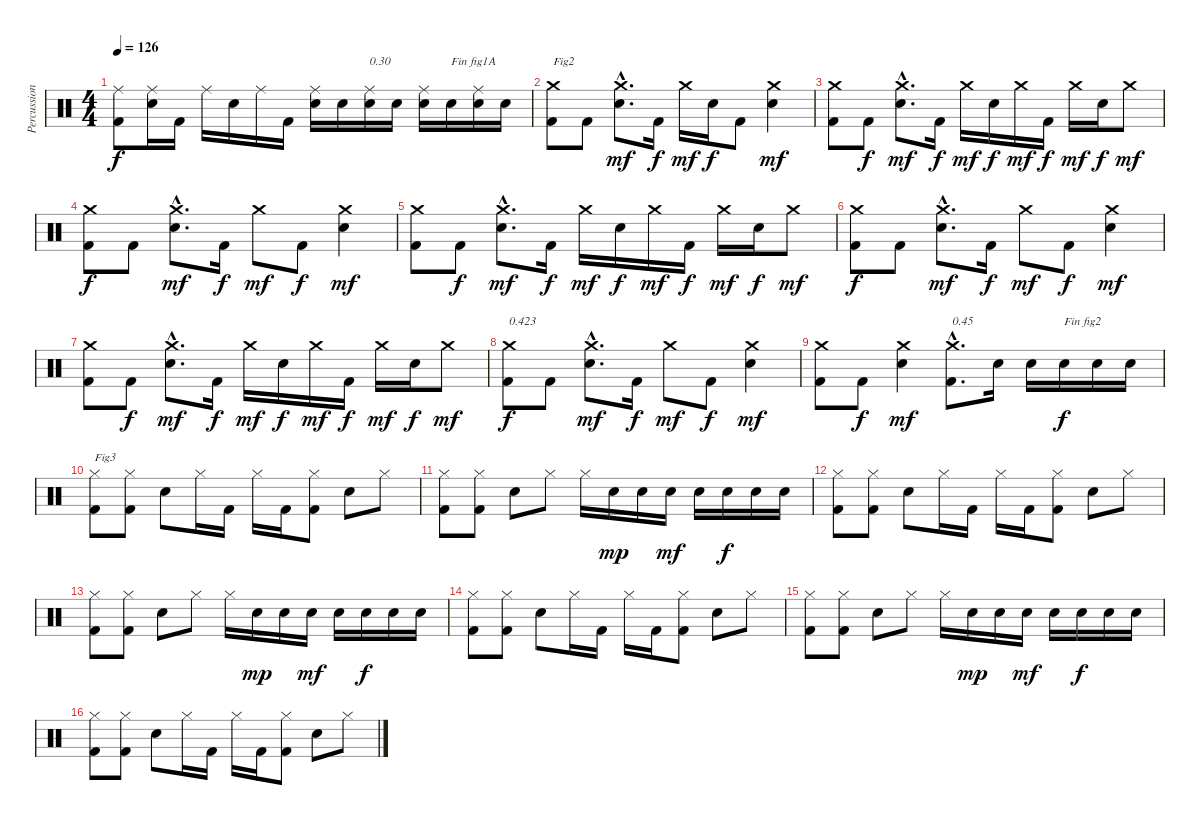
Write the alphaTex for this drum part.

\track ("Percussions" "Percussion") {instrument percussion}
\staff {score}
\articulation defaults
\ts (4 4)
\tempo 126
\clef neutral
\ks c
("Kick (hit) 2" "Ride (middle)").8{dy f} ("Electric Snare (hit)" "Ride (middle)").16 "Kick (hit) 2".16 "Ride (middle)".16 "Electric Snare (hit)".16 "Ride (middle)".16 "Kick (hit) 2".16 ("Electric Snare (hit)" "Ride (middle)").16 "Electric Snare (hit)".16 ("Electric Snare (hit)" "Ride (middle)").16{txt "0.30"} "Electric Snare (hit)".16 ("Electric Snare (hit)" "Ride (middle)").16 "Electric Snare (hit)".16{txt "Fin fig1A"} ("Electric Snare (hit)" "Ride (middle)").16 "Electric Snare (hit)".16 |
("Kick (hit) 2" "Crash medium (hit)").8{txt "Fig2"} "Kick (hit) 2".8 ("Electric Snare (hit)"{hac} "Crash medium (hit)"{hac}).8{d dy mf} "Kick (hit) 2".16{dy f} "Crash medium (hit)".16{dy mf} "Electric Snare (hit)".16{dy f} "Kick (hit) 2".8 ("Electric Snare (hit)" "Crash medium (hit)").4{dy mf} |
("Kick (hit) 2" "Crash medium (hit)").8 "Kick (hit) 2".8{dy f} ("Electric Snare (hit)"{hac} "Crash medium (hit)"{hac}).8{d dy mf} "Kick (hit) 2".16{dy f} "Crash medium (hit)".16{dy mf} "Electric Snare (hit)".16{dy f} "Crash medium (hit)".16{dy mf} "Kick (hit) 2".16{dy f} "Crash medium (hit)".16{dy mf} "Electric Snare (hit)".16{dy f} "Crash medium (hit)".8{dy mf} |
("Kick (hit) 2" "Crash medium (hit)").8{dy f} "Kick (hit) 2".8 ("Electric Snare (hit)"{hac} "Crash medium (hit)"{hac}).8{d dy mf} "Kick (hit) 2".16{dy f} "Crash medium (hit)".8{dy mf} "Kick (hit) 2".8{dy f} ("Electric Snare (hit)" "Crash medium (hit)").4{dy mf} |
("Kick (hit) 2" "Crash medium (hit)").8 "Kick (hit) 2".8{dy f} ("Electric Snare (hit)"{hac} "Crash medium (hit)"{hac}).8{d dy mf} "Kick (hit) 2".16{dy f} "Crash medium (hit)".16{dy mf} "Electric Snare (hit)".16{dy f} "Crash medium (hit)".16{dy mf} "Kick (hit) 2".16{dy f} "Crash medium (hit)".16{dy mf} "Electric Snare (hit)".16{dy f} "Crash medium (hit)".8{dy mf} |
("Kick (hit) 2" "Crash medium (hit)").8{dy f} "Kick (hit) 2".8 ("Electric Snare (hit)"{hac} "Crash medium (hit)"{hac}).8{d dy mf} "Kick (hit) 2".16{dy f} "Crash medium (hit)".8{dy mf} "Kick (hit) 2".8{dy f} ("Electric Snare (hit)" "Crash medium (hit)").4{dy mf} |
("Kick (hit) 2" "Crash medium (hit)").8 "Kick (hit) 2".8{dy f} ("Electric Snare (hit)"{hac} "Crash medium (hit)"{hac}).8{d dy mf} "Kick (hit) 2".16{dy f} "Crash medium (hit)".16{dy mf} "Electric Snare (hit)".16{dy f} "Crash medium (hit)".16{dy mf} "Kick (hit) 2".16{dy f} "Crash medium (hit)".16{dy mf} "Electric Snare (hit)".16{dy f} "Crash medium (hit)".8{dy mf} |
("Kick (hit) 2" "Crash medium (hit)").8{txt "0.423" dy f} "Kick (hit) 2".8 ("Electric Snare (hit)"{hac} "Crash medium (hit)"{hac}).8{d dy mf} "Kick (hit) 2".16{dy f} "Crash medium (hit)".8{dy mf} "Kick (hit) 2".8{dy f} ("Electric Snare (hit)" "Crash medium (hit)").4{dy mf} |
("Kick (hit) 2" "Crash medium (hit)").8 "Kick (hit) 2".8{dy f} ("Electric Snare (hit)" "Crash medium (hit)").4{dy mf} ("Kick (hit) 2"{hac} "Crash medium (hit)"{hac}).8{d txt "0.45"} "Electric Snare (hit)".16 "Electric Snare (hit)".16 "Electric Snare (hit)".16{txt "Fin fig2" dy f} "Electric Snare (hit)".16 "Electric Snare (hit)".16 |
("Kick (hit) 2" "Hi-Hat (closed)").8{txt "Fig3"} ("Kick (hit) 2" "Hi-Hat (closed)").8 "Electric Snare (hit)".8 "Hi-Hat (closed)".16 "Kick (hit) 2".16 "Hi-Hat (closed)".16 "Kick (hit) 2".16 ("Kick (hit) 2" "Hi-Hat (closed)").8 "Electric Snare (hit)".8 "Hi-Hat (closed)".8 |
("Kick (hit) 2" "Hi-Hat (closed)").8 ("Kick (hit) 2" "Hi-Hat (closed)").8 "Electric Snare (hit)".8 "Hi-Hat (closed)".8 "Hi-Hat (closed)".16 "Electric Snare (hit)".16{dy mp} "Electric Snare (hit)".16 "Electric Snare (hit)".16{dy mf} "Electric Snare (hit)".16 "Electric Snare (hit)".16{dy f} "Electric Snare (hit)".16 "Electric Snare (hit)".16 |
("Kick (hit) 2" "Hi-Hat (closed)").8 ("Kick (hit) 2" "Hi-Hat (closed)").8 "Electric Snare (hit)".8 "Hi-Hat (closed)".16 "Kick (hit) 2".16 "Hi-Hat (closed)".16 "Kick (hit) 2".16 ("Kick (hit) 2" "Hi-Hat (closed)").8 "Electric Snare (hit)".8 "Hi-Hat (closed)".8 |
("Kick (hit) 2" "Hi-Hat (closed)").8 ("Kick (hit) 2" "Hi-Hat (closed)").8 "Electric Snare (hit)".8 "Hi-Hat (closed)".8 "Hi-Hat (closed)".16 "Electric Snare (hit)".16{dy mp} "Electric Snare (hit)".16 "Electric Snare (hit)".16{dy mf} "Electric Snare (hit)".16 "Electric Snare (hit)".16{dy f} "Electric Snare (hit)".16 "Electric Snare (hit)".16 |
("Kick (hit) 2" "Hi-Hat (closed)").8 ("Kick (hit) 2" "Hi-Hat (closed)").8 "Electric Snare (hit)".8 "Hi-Hat (closed)".16 "Kick (hit) 2".16 "Hi-Hat (closed)".16 "Kick (hit) 2".16 ("Kick (hit) 2" "Hi-Hat (closed)").8 "Electric Snare (hit)".8 "Hi-Hat (closed)".8 |
("Kick (hit) 2" "Hi-Hat (closed)").8 ("Kick (hit) 2" "Hi-Hat (closed)").8 "Electric Snare (hit)".8 "Hi-Hat (closed)".8 "Hi-Hat (closed)".16 "Electric Snare (hit)".16{dy mp} "Electric Snare (hit)".16 "Electric Snare (hit)".16{dy mf} "Electric Snare (hit)".16 "Electric Snare (hit)".16{dy f} "Electric Snare (hit)".16 "Electric Snare (hit)".16 |
("Kick (hit) 2" "Hi-Hat (closed)").8 ("Kick (hit) 2" "Hi-Hat (closed)").8 "Electric Snare (hit)".8 "Hi-Hat (closed)".16 "Kick (hit) 2".16 "Hi-Hat (closed)".16 "Kick (hit) 2".16 ("Kick (hit) 2" "Hi-Hat (closed)").8 "Electric Snare (hit)".8 "Hi-Hat (closed)".8
